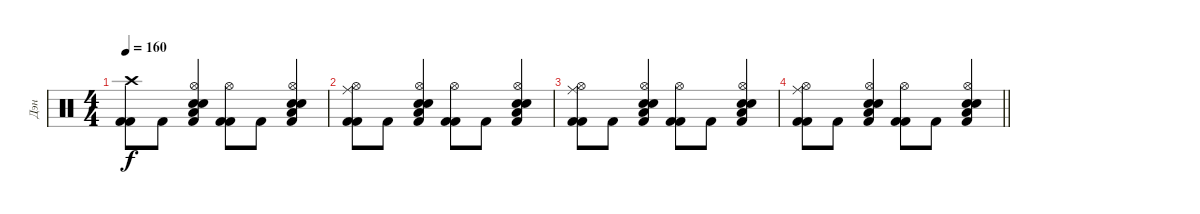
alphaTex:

\track ("Дэн" "Дэн") {instrument percussion}
\staff {score}
\articulation defaults
\ts (4 4)
\tempo 160
\clef neutral
\ks c
("Crash high (hit)" "Kick (hit) 2" "Kick (hit) 2").8{dy f} "Kick (hit) 2".8 ("Hi-Hat (open)" "Low Tom (hit)" "Electric Snare (hit)" "Kick (hit) 2" "Electric Snare (hit)").4 ("Hi-Hat (open)" "Kick (hit) 2" "Kick (hit) 2").8 "Kick (hit) 2".8 ("Hi-Hat (open)" "Low Tom (hit)" "Electric Snare (hit)" "Kick (hit) 2" "Electric Snare (hit)").4 |
("Ride (middle)" "Hi-Hat (open)" "Kick (hit) 2" "Kick (hit) 2").8 "Kick (hit) 2".8 ("Hi-Hat (open)" "Low Tom (hit)" "Electric Snare (hit)" "Kick (hit) 2" "Electric Snare (hit)").4 ("Hi-Hat (open)" "Kick (hit) 2" "Kick (hit) 2").8 "Kick (hit) 2".8 ("Hi-Hat (open)" "Low Tom (hit)" "Electric Snare (hit)" "Kick (hit) 2" "Electric Snare (hit)").4 |
("Ride (middle)" "Hi-Hat (open)" "Kick (hit) 2" "Kick (hit) 2").8 "Kick (hit) 2".8 ("Hi-Hat (open)" "Low Tom (hit)" "Electric Snare (hit)" "Kick (hit) 2" "Electric Snare (hit)").4 ("Hi-Hat (open)" "Kick (hit) 2" "Kick (hit) 2").8 "Kick (hit) 2".8 ("Hi-Hat (open)" "Low Tom (hit)" "Electric Snare (hit)" "Kick (hit) 2" "Electric Snare (hit)").4 |
\barLineRight lightlight
("Ride (middle)" "Hi-Hat (open)" "Kick (hit) 2" "Kick (hit) 2").8 "Kick (hit) 2".8 ("Hi-Hat (open)" "Low Tom (hit)" "Electric Snare (hit)" "Kick (hit) 2" "Electric Snare (hit)").4 ("Hi-Hat (open)" "Kick (hit) 2" "Kick (hit) 2").8 "Kick (hit) 2".8 ("Hi-Hat (open)" "Low Tom (hit)" "Electric Snare (hit)" "Kick (hit) 2" "Electric Snare (hit)").4
